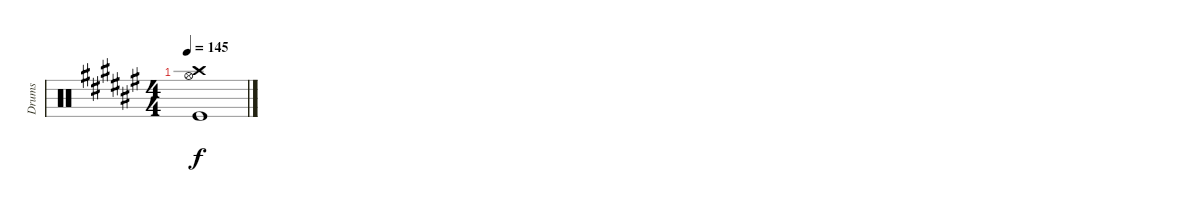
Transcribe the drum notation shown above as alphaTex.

\track ("Drums" "Drums") {instrument percussion}
\staff {score}
\articulation defaults
\ts (4 4)
\tempo 145
\clef neutral
\ks f#
("Hi-Hat (open)" "Kick (hit)" "Crash high (hit)").1{dy f}
